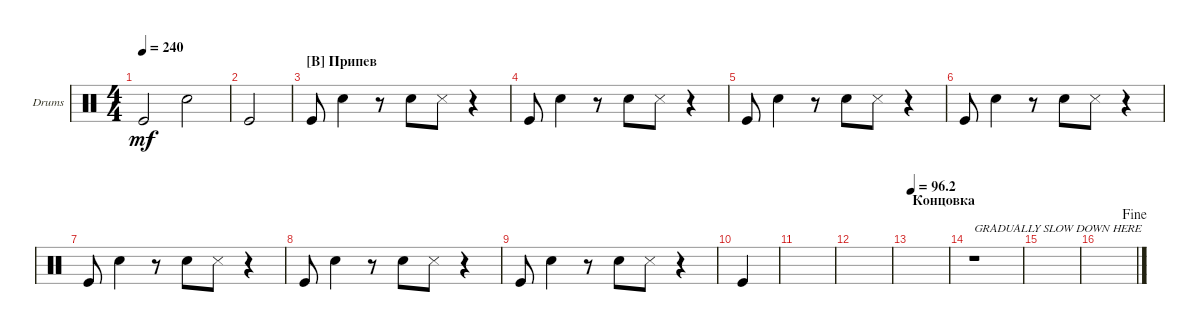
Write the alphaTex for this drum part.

\defaultSystemsLayout 4
\bracketExtendMode groupsimilarinstruments
\firstSystemTrackNameOrientation horizontal
\otherSystemsTrackNameOrientation horizontal
\track ("Drumkit" "Drums") {instrument percussion}
\staff {score}
\articulation defaults
\ts (4 4)
\tempo 240
\clef neutral
\ks c "Kick (hit)".2{dy mf} "Snare (hit) 2".2
|
"Kick (hit)".2 |
\section ("B" "Припев")
"Kick (hit)".8 "Snare (hit) 2".4 r.8 "Snare (hit) 2".8 "Snare (side stick) 3".8 r.4 |
"Kick (hit)".8 "Snare (hit) 2".4 r.8 "Snare (hit) 2".8 "Snare (side stick) 3".8 r.4 |
"Kick (hit)".8 "Snare (hit) 2".4 r.8 "Snare (hit) 2".8 "Snare (side stick) 3".8 r.4 |
"Kick (hit)".8 "Snare (hit) 2".4 r.8 "Snare (hit) 2".8 "Snare (side stick) 3".8 r.4 |
"Kick (hit)".8 "Snare (hit) 2".4 r.8 "Snare (hit) 2".8 "Snare (side stick) 3".8 r.4 |
"Kick (hit)".8 "Snare (hit) 2".4 r.8 "Snare (hit) 2".8 "Snare (side stick) 3".8 r.4 |
"Kick (hit)".8 "Snare (hit) 2".4 r.8 "Snare (hit) 2".8 "Snare (side stick) 3".8 r.4 |
"Kick (hit)".4 |
|
|
\section ("" "Концовка")
\tempo
96.2 |
r.1{txt "GRADUALLY SLOW DOWN HERE"} |
|
\jump fine
